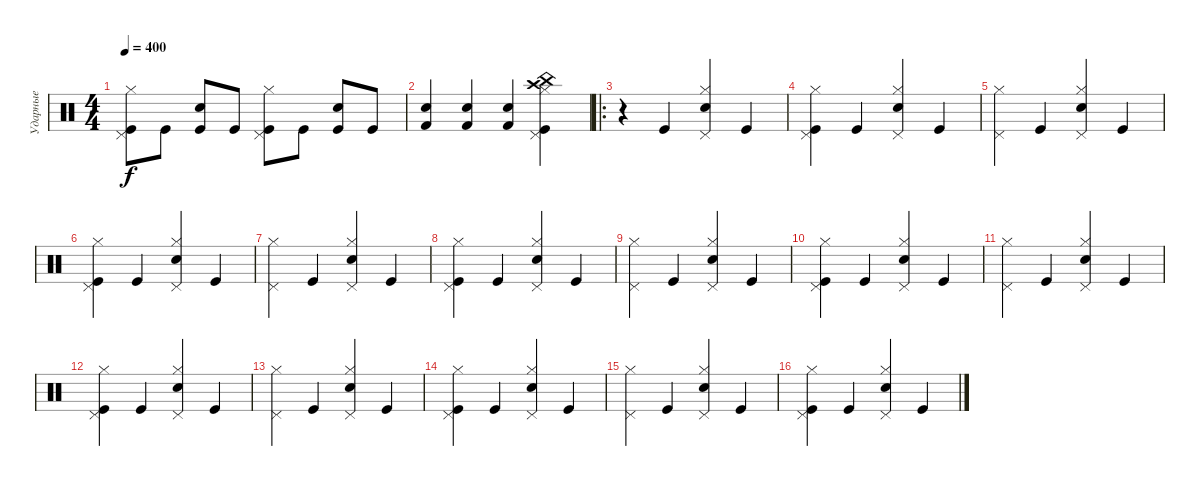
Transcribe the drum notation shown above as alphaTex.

\track ("Ударные" "Ударные") {instrument percussion}
\staff {score}
\articulation defaults
\ts (4 4)
\tempo 400
\clef neutral
\ks c
("Kick (hit)" "Pedal Hi-Hat (hit)" "Hi-Hat (closed)").8{dy f} "Kick (hit)".8 ("Kick (hit)" "Electric Snare (hit)").8 "Kick (hit)".8 ("Kick (hit)" "Hi-Hat (closed)" "Pedal Hi-Hat (hit)").8 "Kick (hit)".8 ("Kick (hit)" "Electric Snare (hit)").8 "Kick (hit)".8 |
("Kick (hit) 2" "Snare (hit) 2").4 ("Kick (hit) 2" "Snare (hit) 2").4 ("Kick (hit) 2" "Snare (hit) 2").4 ("Kick (hit)" "Hi-Hat (closed)" "Pedal Hi-Hat (hit)" "Crash high (hit)" "China (hit)").4 |
\ro
r.4 "Kick (hit)".4 ("Electric Snare (hit)" "Pedal Hi-Hat (hit)" "Hi-Hat (closed)").4 "Kick (hit)".4 |
("Kick (hit)" "Hi-Hat (closed)" "Pedal Hi-Hat (hit)").4 "Kick (hit)".4 ("Electric Snare (hit)" "Hi-Hat (closed)" "Pedal Hi-Hat (hit)").4 "Kick (hit)".4 |
("Hi-Hat (closed)" "Pedal Hi-Hat (hit)").4 "Kick (hit)".4 ("Electric Snare (hit)" "Hi-Hat (closed)" "Pedal Hi-Hat (hit)").4 "Kick (hit)".4 |
("Kick (hit)" "Pedal Hi-Hat (hit)" "Hi-Hat (closed)").4 "Kick (hit)".4 ("Electric Snare (hit)" "Hi-Hat (closed)" "Pedal Hi-Hat (hit)").4 "Kick (hit)".4 |
("Pedal Hi-Hat (hit)" "Hi-Hat (closed)").4 "Kick (hit)".4 ("Electric Snare (hit)" "Pedal Hi-Hat (hit)" "Hi-Hat (closed)").4 "Kick (hit)".4 |
("Kick (hit)" "Hi-Hat (closed)" "Pedal Hi-Hat (hit)").4 "Kick (hit)".4 ("Electric Snare (hit)" "Pedal Hi-Hat (hit)" "Hi-Hat (closed)").4 "Kick (hit)".4 |
("Hi-Hat (closed)" "Pedal Hi-Hat (hit)").4 "Kick (hit)".4 ("Electric Snare (hit)" "Pedal Hi-Hat (hit)" "Hi-Hat (closed)").4 "Kick (hit)".4 |
("Kick (hit)" "Hi-Hat (closed)" "Pedal Hi-Hat (hit)").4 "Kick (hit)".4 ("Electric Snare (hit)" "Pedal Hi-Hat (hit)" "Hi-Hat (closed)").4 "Kick (hit)".4 |
("Hi-Hat (closed)" "Pedal Hi-Hat (hit)").4 "Kick (hit)".4 ("Electric Snare (hit)" "Pedal Hi-Hat (hit)" "Hi-Hat (closed)").4 "Kick (hit)".4 |
("Kick (hit)" "Hi-Hat (closed)" "Pedal Hi-Hat (hit)").4 "Kick (hit)".4 ("Electric Snare (hit)" "Pedal Hi-Hat (hit)" "Hi-Hat (closed)").4 "Kick (hit)".4 |
("Hi-Hat (closed)" "Pedal Hi-Hat (hit)").4 "Kick (hit)".4 ("Electric Snare (hit)" "Pedal Hi-Hat (hit)" "Hi-Hat (closed)").4 "Kick (hit)".4 |
("Kick (hit)" "Hi-Hat (closed)" "Pedal Hi-Hat (hit)").4 "Kick (hit)".4 ("Electric Snare (hit)" "Pedal Hi-Hat (hit)" "Hi-Hat (closed)").4 "Kick (hit)".4 |
("Hi-Hat (closed)" "Pedal Hi-Hat (hit)").4 "Kick (hit)".4 ("Pedal Hi-Hat (hit)" "Hi-Hat (closed)" "Electric Snare (hit)").4 "Kick (hit)".4 |
("Kick (hit)" "Hi-Hat (closed)" "Pedal Hi-Hat (hit)").4 "Kick (hit)".4 ("Electric Snare (hit)" "Pedal Hi-Hat (hit)" "Hi-Hat (closed)").4 "Kick (hit)".4
